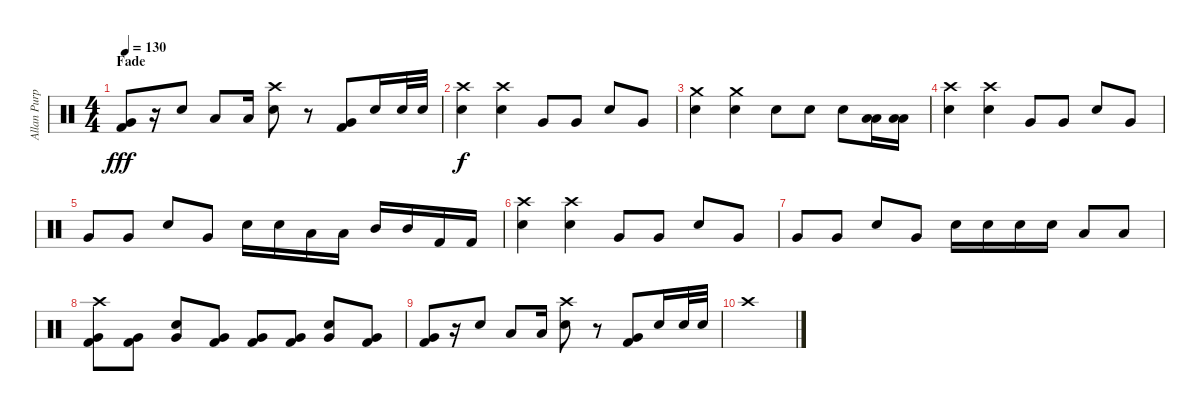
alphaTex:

\track ("Allan Purple" "Allan Purp") {instrument percussion}
\staff {score}
\articulation defaults
\ts (4 4)
\section ("" "Fade ")
\tempo 130
\clef neutral
\ks c
("Kick (hit) 2" "Very Low Tom (hit)").8{dy fff} r.16 "Electric Snare (hit)".8 "Low Tom (hit)".8 "Low Tom (hit)".16 ("Crash high (hit)" "Electric Snare (hit)").8 r.8 ("Kick (hit) 2" "Very Low Tom (hit)").8 "Electric Snare (hit)".16 "Electric Snare (hit)".32 "Electric Snare (hit)".32 |
("Crash high (hit)" "Electric Snare (hit)").4{dy f} ("Crash high (hit)" "Electric Snare (hit)").4 "Very Low Tom (hit)".8 "Very Low Tom (hit)".8 "Electric Snare (hit)".8 "Very Low Tom (hit)".8 |
("Crash medium (hit)" "Electric Snare (hit)").4 ("Crash medium (hit)" "Electric Snare (hit)").4 "Snare (hit) 2".8 "Snare (hit) 2".8 "Electric Snare (hit)".8 ("Low Tom (hit)" "Low Tom (hit)").16 ("Low Tom (hit)" "Low Tom (hit)").16 |
("Crash high (hit)" "Electric Snare (hit)").4 ("Crash high (hit)" "Electric Snare (hit)").4 "Very Low Tom (hit)".8 "Very Low Tom (hit)".8 "Electric Snare (hit)".8 "Very Low Tom (hit)".8 |
"Very Low Tom (hit)".8 "Very Low Tom (hit)".8 "Electric Snare (hit)".8 "Very Low Tom (hit)".8 "Electric Snare (hit)".16 "Electric Snare (hit)".16 "Low Tom (hit)".16 "Low Tom (hit)".16 "Mid Tom (hit)".16 "Mid Tom (hit)".16 "Kick (hit) 2".16 "Kick (hit) 2".16 |
("Crash high (hit)" "Electric Snare (hit)").4 ("Crash high (hit)" "Electric Snare (hit)").4 "Very Low Tom (hit)".8 "Very Low Tom (hit)".8 "Electric Snare (hit)".8 "Very Low Tom (hit)".8 |
"Very Low Tom (hit)".8 "Very Low Tom (hit)".8 "Electric Snare (hit)".8 "Very Low Tom (hit)".8 "Electric Snare (hit)".16 "Electric Snare (hit)".16 "Snare (hit) 2".16 "Snare (hit) 2".16 "Low Tom (hit)".8 "Low Tom (hit)".8 |
("Crash high (hit)" "Kick (hit) 2" "Very Low Tom (hit)").8 ("Kick (hit) 2" "Very Low Tom (hit)").8 ("Electric Snare (hit)" "Very Low Tom (hit)").8 ("Kick (hit) 2" "Very Low Tom (hit)").8 ("Kick (hit) 2" "Very Low Tom (hit)").8 ("Kick (hit) 2" "Very Low Tom (hit)").8 ("Electric Snare (hit)" "Very Low Tom (hit)").8 ("Kick (hit) 2" "Very Low Tom (hit)").8 |
("Kick (hit) 2" "Very Low Tom (hit)").8 r.16 "Electric Snare (hit)".8 "Low Tom (hit)".8 "Low Tom (hit)".16 ("Crash high (hit)" "Electric Snare (hit)").8 r.8 ("Kick (hit) 2" "Very Low Tom (hit)").8 "Electric Snare (hit)".16 "Electric Snare (hit)".32 "Electric Snare (hit)".32 |
"Crash high (hit)".1
